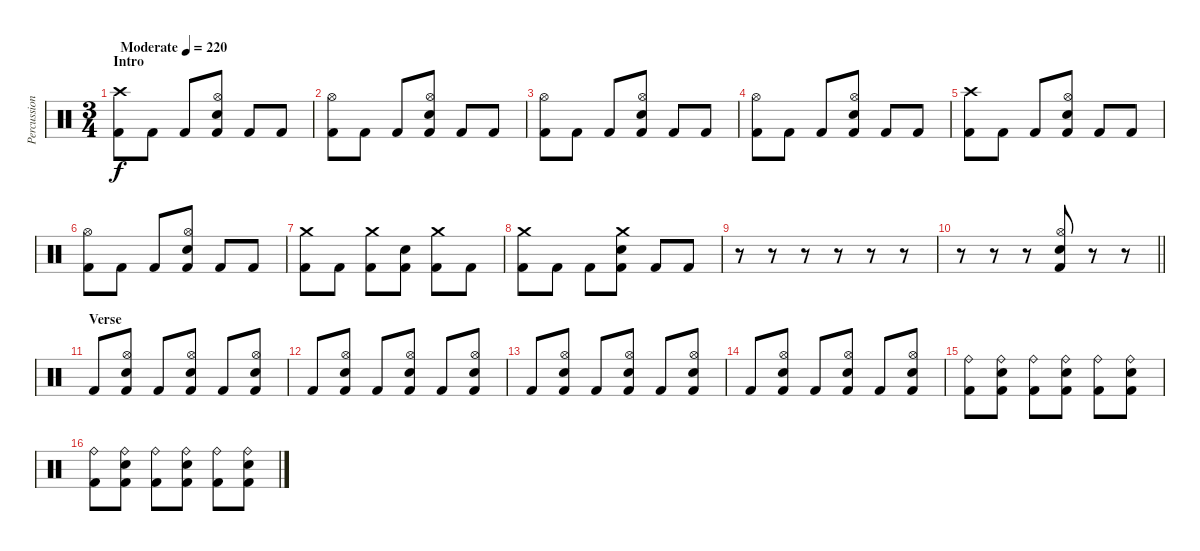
\track ("Percussion" "Percussion") {instrument percussion}
\staff {score}
\articulation defaults
\ts (3 4)
\section ("" "Intro")
\tempo (220 "Moderate")
\clef neutral
\ks c
("Crash high (hit)" "Kick (hit) 2").8{dy f} "Kick (hit) 2".8 "Kick (hit) 2".8 ("Hi-Hat (open)" "Electric Snare (hit)" "Kick (hit) 2").8 "Kick (hit) 2".8 "Kick (hit) 2".8 |
("Hi-Hat (open)" "Kick (hit) 2").8 "Kick (hit) 2".8 "Kick (hit) 2".8 ("Hi-Hat (open)" "Electric Snare (hit)" "Kick (hit) 2").8 "Kick (hit) 2".8 "Kick (hit) 2".8 |
("Hi-Hat (open)" "Kick (hit) 2").8 "Kick (hit) 2".8 "Kick (hit) 2".8 ("Hi-Hat (open)" "Electric Snare (hit)" "Kick (hit) 2").8 "Kick (hit) 2".8 "Kick (hit) 2".8 |
("Hi-Hat (open)" "Kick (hit) 2").8 "Kick (hit) 2".8 "Kick (hit) 2".8 ("Hi-Hat (open)" "Electric Snare (hit)" "Kick (hit) 2").8 "Kick (hit) 2".8 "Kick (hit) 2".8 |
("Crash high (hit)" "Kick (hit) 2").8 "Kick (hit) 2".8 "Kick (hit) 2".8 ("Hi-Hat (open)" "Electric Snare (hit)" "Kick (hit) 2").8 "Kick (hit) 2".8 "Kick (hit) 2".8 |
("Hi-Hat (open)" "Kick (hit) 2").8 "Kick (hit) 2".8 "Kick (hit) 2".8 ("Hi-Hat (open)" "Electric Snare (hit)" "Kick (hit) 2").8 "Kick (hit) 2".8 "Kick (hit) 2".8 |
("Crash medium (hit)" "Kick (hit) 2").8 "Kick (hit) 2".8 ("Crash medium (hit)" "Kick (hit) 2").8 ("Electric Snare (hit)" "Kick (hit) 2").8 ("Crash medium (hit)" "Kick (hit) 2").8 "Kick (hit) 2".8 |
("Crash medium (hit)" "Kick (hit) 2").8 "Kick (hit) 2".8 "Kick (hit) 2".8 ("Crash medium (hit)" "Electric Snare (hit)" "Kick (hit) 2").8 "Kick (hit) 2".8 "Kick (hit) 2".8 |
r.8 r.8 r.8 r.8 r.8 r.8 |
\barLineRight lightlight
r.8 r.8 r.8 ("Hi-Hat (open)" "Electric Snare (hit)" "Kick (hit) 2").8 r.8 r.8 |
\section ("" "Verse")
"Kick (hit) 2".8 ("Hi-Hat (open)" "Electric Snare (hit)" "Kick (hit) 2").8 "Kick (hit) 2".8 ("Hi-Hat (open)" "Electric Snare (hit)" "Kick (hit) 2").8 "Kick (hit) 2".8 ("Hi-Hat (open)" "Electric Snare (hit)" "Kick (hit) 2").8 |
"Kick (hit) 2".8 ("Hi-Hat (open)" "Electric Snare (hit)" "Kick (hit) 2").8 "Kick (hit) 2".8 ("Hi-Hat (open)" "Electric Snare (hit)" "Kick (hit) 2").8 "Kick (hit) 2".8 ("Hi-Hat (open)" "Electric Snare (hit)" "Kick (hit) 2").8 |
"Kick (hit) 2".8 ("Hi-Hat (open)" "Electric Snare (hit)" "Kick (hit) 2").8 "Kick (hit) 2".8 ("Hi-Hat (open)" "Electric Snare (hit)" "Kick (hit) 2").8 "Kick (hit) 2".8 ("Hi-Hat (open)" "Electric Snare (hit)" "Kick (hit) 2").8 |
"Kick (hit) 2".8 ("Hi-Hat (open)" "Electric Snare (hit)" "Kick (hit) 2").8 "Kick (hit) 2".8 ("Hi-Hat (open)" "Electric Snare (hit)" "Kick (hit) 2").8 "Kick (hit) 2".8 ("Hi-Hat (open)" "Electric Snare (hit)" "Kick (hit) 2").8 |
("Ride (bell)" "Kick (hit) 2").8 ("Ride (bell)" "Electric Snare (hit)" "Kick (hit) 2").8 ("Ride (bell)" "Kick (hit) 2").8 ("Ride (bell)" "Electric Snare (hit)" "Kick (hit) 2").8 ("Ride (bell)" "Kick (hit) 2").8 ("Ride (bell)" "Electric Snare (hit)" "Kick (hit) 2").8 |
("Ride (bell)" "Kick (hit) 2").8 ("Ride (bell)" "Electric Snare (hit)" "Kick (hit) 2").8 ("Ride (bell)" "Kick (hit) 2").8 ("Ride (bell)" "Electric Snare (hit)" "Kick (hit) 2").8 ("Ride (bell)" "Kick (hit) 2").8 ("Ride (bell)" "Electric Snare (hit)" "Kick (hit) 2").8
